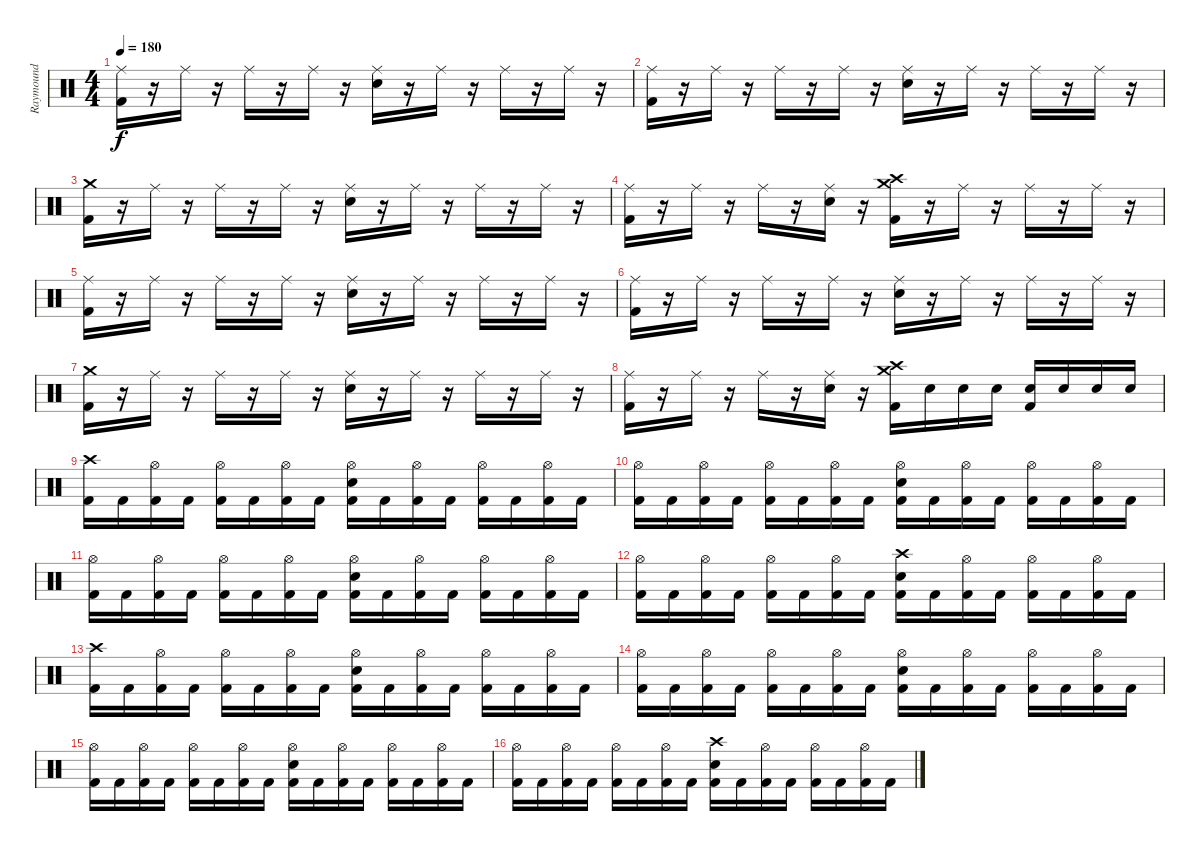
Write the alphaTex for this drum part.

\track ("Raymound " "Raymound ") {instrument percussion}
\staff {score}
\articulation defaults
\ts (4 4)
\tempo 180
\clef neutral
\ks c
("Ride (middle)" "Kick (hit) 2").16{dy f} r.16 "Ride (middle)".16 r.16 "Ride (middle)".16 r.16 "Ride (middle)".16 r.16 ("Ride (middle)" "Electric Snare (hit)").16 r.16 "Ride (middle)".16 r.16 "Ride (middle)".16 r.16 "Ride (middle)".16 r.16 |
("Ride (middle)" "Kick (hit) 2").16 r.16 "Ride (middle)".16 r.16 "Ride (middle)".16 r.16 "Ride (middle)".16 r.16 ("Ride (middle)" "Electric Snare (hit)").16 r.16 "Ride (middle)".16 r.16 "Ride (middle)".16 r.16 "Ride (middle)".16 r.16 |
("Crash medium (hit)" "Kick (hit) 2").16 r.16 "Ride (middle)".16 r.16 "Ride (middle)".16 r.16 "Ride (middle)".16 r.16 ("Ride (middle)" "Electric Snare (hit)").16 r.16 "Ride (middle)".16 r.16 "Ride (middle)".16 r.16 "Ride (middle)".16 r.16 |
("Ride (middle)" "Kick (hit) 2").16 r.16 "Ride (middle)".16 r.16 "Ride (middle)".16 r.16 ("Ride (middle)" "Electric Snare (hit)").16 r.16 ("Crash high (hit)" "Crash medium (hit)" "Kick (hit) 2").16 r.16 "Ride (middle)".16 r.16 "Ride (middle)".16 r.16 "Ride (middle)".16 r.16 |
("Ride (middle)" "Kick (hit) 2").16 r.16 "Ride (middle)".16 r.16 "Ride (middle)".16 r.16 "Ride (middle)".16 r.16 ("Ride (middle)" "Electric Snare (hit)").16 r.16 "Ride (middle)".16 r.16 "Ride (middle)".16 r.16 "Ride (middle)".16 r.16 |
("Ride (middle)" "Kick (hit) 2").16 r.16 "Ride (middle)".16 r.16 "Ride (middle)".16 r.16 "Ride (middle)".16 r.16 ("Ride (middle)" "Electric Snare (hit)").16 r.16 "Ride (middle)".16 r.16 "Ride (middle)".16 r.16 "Ride (middle)".16 r.16 |
("Crash medium (hit)" "Kick (hit) 2").16 r.16 "Ride (middle)".16 r.16 "Ride (middle)".16 r.16 "Ride (middle)".16 r.16 ("Ride (middle)" "Electric Snare (hit)").16 r.16 "Ride (middle)".16 r.16 "Ride (middle)".16 r.16 "Ride (middle)".16 r.16 |
("Ride (middle)" "Kick (hit) 2").16 r.16 "Ride (middle)".16 r.16 "Ride (middle)".16 r.16 ("Ride (middle)" "Electric Snare (hit)").16 r.16 ("Crash high (hit)" "Crash medium (hit)" "Kick (hit) 2").16 "Electric Snare (hit)".16 "Electric Snare (hit)".16 "Electric Snare (hit)".16 ("Electric Snare (hit)" "Kick (hit) 2").16 "Electric Snare (hit)".16 "Electric Snare (hit)".16 "Electric Snare (hit)".16 |
("Crash high (hit)" "Kick (hit) 2").16 "Kick (hit) 2".16 ("Hi-Hat (open)" "Kick (hit) 2").16 "Kick (hit) 2".16 ("Hi-Hat (open)" "Kick (hit) 2").16 "Kick (hit) 2".16 ("Hi-Hat (open)" "Kick (hit) 2").16 "Kick (hit) 2".16 ("Hi-Hat (open)" "Electric Snare (hit)" "Kick (hit) 2").16 "Kick (hit) 2".16 ("Hi-Hat (open)" "Kick (hit) 2").16 "Kick (hit) 2".16 ("Hi-Hat (open)" "Kick (hit) 2").16 "Kick (hit) 2".16 ("Hi-Hat (open)" "Kick (hit) 2").16 "Kick (hit) 2".16 |
("Hi-Hat (open)" "Kick (hit) 2").16 "Kick (hit) 2".16 ("Hi-Hat (open)" "Kick (hit) 2").16 "Kick (hit) 2".16 ("Hi-Hat (open)" "Kick (hit) 2").16 "Kick (hit) 2".16 ("Hi-Hat (open)" "Kick (hit) 2").16 "Kick (hit) 2".16 ("Hi-Hat (open)" "Electric Snare (hit)" "Kick (hit) 2").16 "Kick (hit) 2".16 ("Hi-Hat (open)" "Kick (hit) 2").16 "Kick (hit) 2".16 ("Hi-Hat (open)" "Kick (hit) 2").16 "Kick (hit) 2".16 ("Hi-Hat (open)" "Kick (hit) 2").16 "Kick (hit) 2".16 |
("Hi-Hat (open)" "Kick (hit) 2").16 "Kick (hit) 2".16 ("Hi-Hat (open)" "Kick (hit) 2").16 "Kick (hit) 2".16 ("Hi-Hat (open)" "Kick (hit) 2").16 "Kick (hit) 2".16 ("Hi-Hat (open)" "Kick (hit) 2").16 "Kick (hit) 2".16 ("Hi-Hat (open)" "Electric Snare (hit)" "Kick (hit) 2").16 "Kick (hit) 2".16 ("Hi-Hat (open)" "Kick (hit) 2").16 "Kick (hit) 2".16 ("Hi-Hat (open)" "Kick (hit) 2").16 "Kick (hit) 2".16 ("Hi-Hat (open)" "Kick (hit) 2").16 "Kick (hit) 2".16 |
("Hi-Hat (open)" "Kick (hit) 2").16 "Kick (hit) 2".16 ("Hi-Hat (open)" "Kick (hit) 2").16 "Kick (hit) 2".16 ("Hi-Hat (open)" "Kick (hit) 2").16 "Kick (hit) 2".16 ("Hi-Hat (open)" "Kick (hit) 2").16 "Kick (hit) 2".16 ("Crash high (hit)" "Electric Snare (hit)" "Kick (hit) 2").16 "Kick (hit) 2".16 ("Hi-Hat (open)" "Kick (hit) 2").16 "Kick (hit) 2".16 ("Hi-Hat (open)" "Kick (hit) 2").16 "Kick (hit) 2".16 ("Hi-Hat (open)" "Kick (hit) 2").16 "Kick (hit) 2".16 |
("Crash high (hit)" "Kick (hit) 2").16 "Kick (hit) 2".16 ("Hi-Hat (open)" "Kick (hit) 2").16 "Kick (hit) 2".16 ("Hi-Hat (open)" "Kick (hit) 2").16 "Kick (hit) 2".16 ("Hi-Hat (open)" "Kick (hit) 2").16 "Kick (hit) 2".16 ("Hi-Hat (open)" "Electric Snare (hit)" "Kick (hit) 2").16 "Kick (hit) 2".16 ("Hi-Hat (open)" "Kick (hit) 2").16 "Kick (hit) 2".16 ("Hi-Hat (open)" "Kick (hit) 2").16 "Kick (hit) 2".16 ("Hi-Hat (open)" "Kick (hit) 2").16 "Kick (hit) 2".16 |
("Hi-Hat (open)" "Kick (hit) 2").16 "Kick (hit) 2".16 ("Hi-Hat (open)" "Kick (hit) 2").16 "Kick (hit) 2".16 ("Hi-Hat (open)" "Kick (hit) 2").16 "Kick (hit) 2".16 ("Hi-Hat (open)" "Kick (hit) 2").16 "Kick (hit) 2".16 ("Hi-Hat (open)" "Electric Snare (hit)" "Kick (hit) 2").16 "Kick (hit) 2".16 ("Hi-Hat (open)" "Kick (hit) 2").16 "Kick (hit) 2".16 ("Hi-Hat (open)" "Kick (hit) 2").16 "Kick (hit) 2".16 ("Hi-Hat (open)" "Kick (hit) 2").16 "Kick (hit) 2".16 |
("Hi-Hat (open)" "Kick (hit) 2").16 "Kick (hit) 2".16 ("Hi-Hat (open)" "Kick (hit) 2").16 "Kick (hit) 2".16 ("Hi-Hat (open)" "Kick (hit) 2").16 "Kick (hit) 2".16 ("Hi-Hat (open)" "Kick (hit) 2").16 "Kick (hit) 2".16 ("Hi-Hat (open)" "Electric Snare (hit)" "Kick (hit) 2").16 "Kick (hit) 2".16 ("Hi-Hat (open)" "Kick (hit) 2").16 "Kick (hit) 2".16 ("Hi-Hat (open)" "Kick (hit) 2").16 "Kick (hit) 2".16 ("Hi-Hat (open)" "Kick (hit) 2").16 "Kick (hit) 2".16 |
("Hi-Hat (open)" "Kick (hit) 2").16 "Kick (hit) 2".16 ("Hi-Hat (open)" "Kick (hit) 2").16 "Kick (hit) 2".16 ("Hi-Hat (open)" "Kick (hit) 2").16 "Kick (hit) 2".16 ("Hi-Hat (open)" "Kick (hit) 2").16 "Kick (hit) 2".16 ("Crash high (hit)" "Electric Snare (hit)" "Kick (hit) 2").16 "Kick (hit) 2".16 ("Hi-Hat (open)" "Kick (hit) 2").16 "Kick (hit) 2".16 ("Hi-Hat (open)" "Kick (hit) 2").16 "Kick (hit) 2".16 ("Hi-Hat (open)" "Kick (hit) 2").16 "Kick (hit) 2".16
